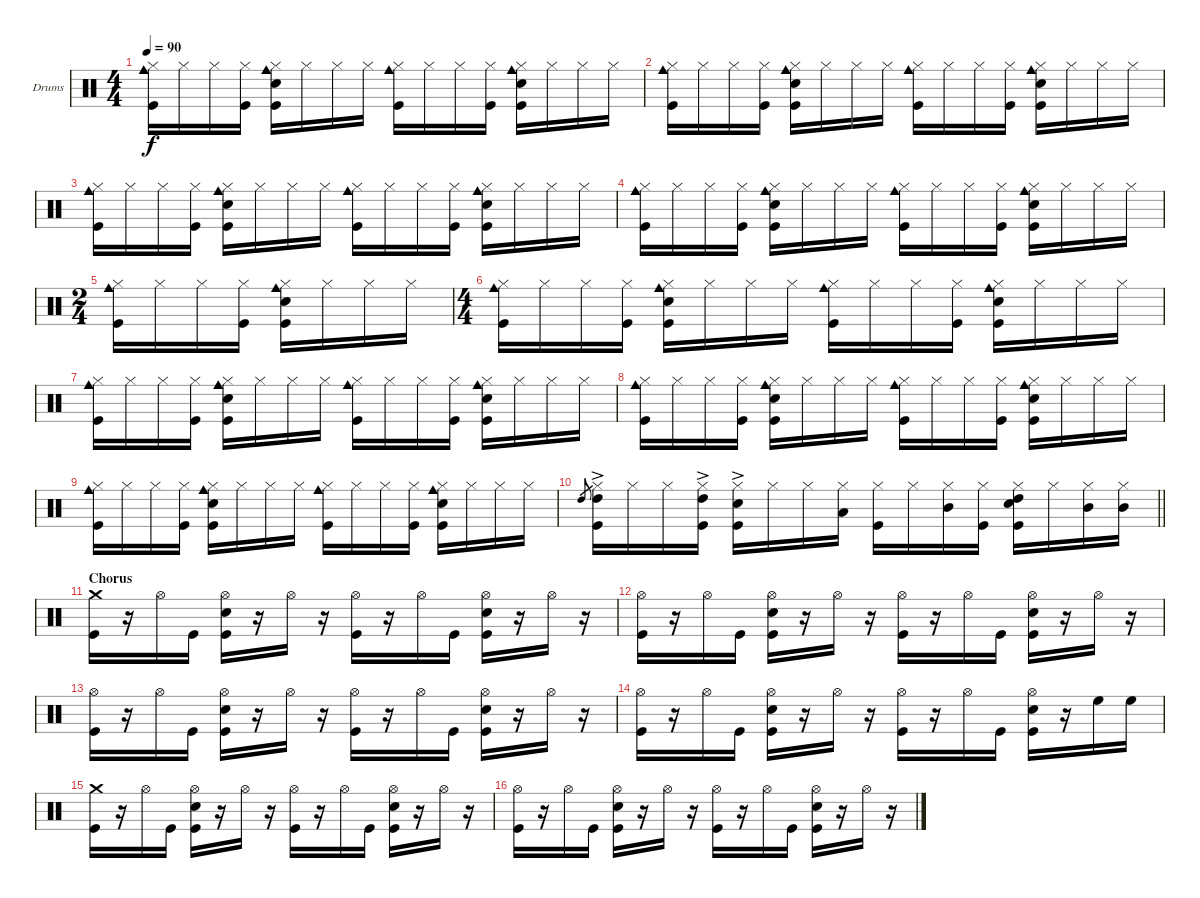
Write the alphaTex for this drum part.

\bracketExtendMode groupsimilarinstruments
\firstSystemTrackNameOrientation horizontal
\otherSystemsTrackNameOrientation horizontal
\track ("Drums" "Drums") {multiBarRest instrument percussion}
\staff {score}
\articulation defaults
\ts (4 4)
\beaming (8 2 2 2 2)
\tempo 90
\clef neutral
\ks c
("Hi-Hat (closed)" "Kick (hit)" "Cowbell medium (hit)").16{dy f} "Hi-Hat (closed)".16 "Hi-Hat (closed)".16 ("Hi-Hat (closed)" "Kick (hit)").16 ("Hi-Hat (closed)" "Snare (hit) 2" "Kick (hit)" "Cowbell medium (hit)").16 "Hi-Hat (closed)".16 "Hi-Hat (closed)".16 "Hi-Hat (closed)".16 ("Hi-Hat (closed)" "Kick (hit)" "Cowbell medium (hit)").16 "Hi-Hat (closed)".16 "Hi-Hat (closed)".16 ("Hi-Hat (closed)" "Kick (hit)").16 ("Hi-Hat (closed)" "Snare (hit) 2" "Kick (hit)" "Cowbell medium (hit)").16 "Hi-Hat (closed)".16 "Hi-Hat (closed)".16 "Hi-Hat (closed)".16 |
("Hi-Hat (closed)" "Kick (hit)" "Cowbell medium (hit)").16 "Hi-Hat (closed)".16 "Hi-Hat (closed)".16 ("Hi-Hat (closed)" "Kick (hit)").16 ("Hi-Hat (closed)" "Snare (hit) 2" "Kick (hit)" "Cowbell medium (hit)").16 "Hi-Hat (closed)".16 "Hi-Hat (closed)".16 "Hi-Hat (closed)".16 ("Hi-Hat (closed)" "Kick (hit)" "Cowbell medium (hit)").16 "Hi-Hat (closed)".16 "Hi-Hat (closed)".16 ("Hi-Hat (closed)" "Kick (hit)").16 ("Hi-Hat (closed)" "Snare (hit) 2" "Kick (hit)" "Cowbell medium (hit)").16 "Hi-Hat (closed)".16 "Hi-Hat (closed)".16 "Hi-Hat (closed)".16 |
("Hi-Hat (closed)" "Kick (hit)" "Cowbell medium (hit)").16 "Hi-Hat (closed)".16 "Hi-Hat (closed)".16 ("Hi-Hat (closed)" "Kick (hit)").16 ("Hi-Hat (closed)" "Snare (hit) 2" "Kick (hit)" "Cowbell medium (hit)").16 "Hi-Hat (closed)".16 "Hi-Hat (closed)".16 "Hi-Hat (closed)".16 ("Hi-Hat (closed)" "Kick (hit)" "Cowbell medium (hit)").16 "Hi-Hat (closed)".16 "Hi-Hat (closed)".16 ("Hi-Hat (closed)" "Kick (hit)").16 ("Hi-Hat (closed)" "Snare (hit) 2" "Kick (hit)" "Cowbell medium (hit)").16 "Hi-Hat (closed)".16 "Hi-Hat (closed)".16 "Hi-Hat (closed)".16 |
("Hi-Hat (closed)" "Kick (hit)" "Cowbell medium (hit)").16 "Hi-Hat (closed)".16 "Hi-Hat (closed)".16 ("Hi-Hat (closed)" "Kick (hit)").16 ("Hi-Hat (closed)" "Snare (hit) 2" "Kick (hit)" "Cowbell medium (hit)").16 "Hi-Hat (closed)".16 "Hi-Hat (closed)".16 "Hi-Hat (closed)".16 ("Hi-Hat (closed)" "Kick (hit)" "Cowbell medium (hit)").16 "Hi-Hat (closed)".16 "Hi-Hat (closed)".16 ("Hi-Hat (closed)" "Kick (hit)").16 ("Hi-Hat (closed)" "Snare (hit) 2" "Kick (hit)" "Cowbell medium (hit)").16 "Hi-Hat (closed)".16 "Hi-Hat (closed)".16 "Hi-Hat (closed)".16 |
\ts (2 4)
\beaming (8 2 2)
("Hi-Hat (closed)" "Kick (hit)" "Cowbell medium (hit)").16 "Hi-Hat (closed)".16 "Hi-Hat (closed)".16 ("Hi-Hat (closed)" "Kick (hit)").16 ("Hi-Hat (closed)" "Snare (hit) 2" "Kick (hit)" "Cowbell medium (hit)").16 "Hi-Hat (closed)".16 "Hi-Hat (closed)".16 "Hi-Hat (closed)".16 |
\ts (4 4)
\beaming (8 2 2 2 2)
("Hi-Hat (closed)" "Kick (hit)" "Cowbell medium (hit)").16 "Hi-Hat (closed)".16 "Hi-Hat (closed)".16 ("Hi-Hat (closed)" "Kick (hit)").16 ("Hi-Hat (closed)" "Snare (hit) 2" "Kick (hit)" "Cowbell medium (hit)").16 "Hi-Hat (closed)".16 "Hi-Hat (closed)".16 "Hi-Hat (closed)".16 ("Hi-Hat (closed)" "Kick (hit)" "Cowbell medium (hit)").16 "Hi-Hat (closed)".16 "Hi-Hat (closed)".16 ("Hi-Hat (closed)" "Kick (hit)").16 ("Hi-Hat (closed)" "Snare (hit) 2" "Kick (hit)" "Cowbell medium (hit)").16 "Hi-Hat (closed)".16 "Hi-Hat (closed)".16 "Hi-Hat (closed)".16 |
("Hi-Hat (closed)" "Kick (hit)" "Cowbell medium (hit)").16 "Hi-Hat (closed)".16 "Hi-Hat (closed)".16 ("Hi-Hat (closed)" "Kick (hit)").16 ("Hi-Hat (closed)" "Snare (hit) 2" "Kick (hit)" "Cowbell medium (hit)").16 "Hi-Hat (closed)".16 "Hi-Hat (closed)".16 "Hi-Hat (closed)".16 ("Hi-Hat (closed)" "Kick (hit)" "Cowbell medium (hit)").16 "Hi-Hat (closed)".16 "Hi-Hat (closed)".16 ("Hi-Hat (closed)" "Kick (hit)").16 ("Hi-Hat (closed)" "Snare (hit) 2" "Kick (hit)" "Cowbell medium (hit)").16 "Hi-Hat (closed)".16 "Hi-Hat (closed)".16 "Hi-Hat (closed)".16 |
("Hi-Hat (closed)" "Kick (hit)" "Cowbell medium (hit)").16 "Hi-Hat (closed)".16 "Hi-Hat (closed)".16 ("Hi-Hat (closed)" "Kick (hit)").16 ("Hi-Hat (closed)" "Snare (hit) 2" "Kick (hit)" "Cowbell medium (hit)").16 "Hi-Hat (closed)".16 "Hi-Hat (closed)".16 "Hi-Hat (closed)".16 ("Hi-Hat (closed)" "Kick (hit)" "Cowbell medium (hit)").16 "Hi-Hat (closed)".16 "Hi-Hat (closed)".16 ("Hi-Hat (closed)" "Kick (hit)").16 ("Hi-Hat (closed)" "Snare (hit) 2" "Kick (hit)" "Cowbell medium (hit)").16 "Hi-Hat (closed)".16 "Hi-Hat (closed)".16 "Hi-Hat (closed)".16 |
("Hi-Hat (closed)" "Kick (hit)" "Cowbell medium (hit)").16 "Hi-Hat (closed)".16 "Hi-Hat (closed)".16 ("Hi-Hat (closed)" "Kick (hit)").16 ("Hi-Hat (closed)" "Snare (hit) 2" "Kick (hit)" "Cowbell medium (hit)").16 "Hi-Hat (closed)".16 "Hi-Hat (closed)".16 "Hi-Hat (closed)".16 ("Hi-Hat (closed)" "Kick (hit)" "Cowbell medium (hit)").16 "Hi-Hat (closed)".16 "Hi-Hat (closed)".16 ("Hi-Hat (closed)" "Kick (hit)").16 ("Hi-Hat (closed)" "Snare (hit) 2" "Kick (hit)" "Cowbell medium (hit)").16 "Hi-Hat (closed)".16 "Hi-Hat (closed)".16 "Hi-Hat (closed)".16 |
\barLineRight lightlight "High Tom (hit)".8{gr}
("Hi-Hat (closed)" "Kick (hit)" "High Tom (hit)"{ac}).16 "Hi-Hat (closed)".16 "Hi-Hat (closed)".16 ("Hi-Hat (closed)" "Kick (hit)" "High Tom (hit)"{ac}).16 ("Hi-Hat (closed)" "Snare (hit) 2"{ac} "Kick (hit)").16 "Hi-Hat (closed)".16 "Hi-Hat (closed)".16 ("Hi-Hat (closed)" "Low Tom (hit)").16 ("Hi-Hat (closed)" "Kick (hit)").16 "Hi-Hat (closed)".16 ("Hi-Hat (closed)" "Mid Tom (hit)").16 ("Hi-Hat (closed)" "Kick (hit)").16 ("Hi-Hat (closed)" "Snare (hit) 2" "Kick (hit)" "High Tom (hit)").16 "Hi-Hat (closed)".16 ("Hi-Hat (closed)" "Mid Tom (hit)").16 ("Hi-Hat (closed)" "Mid Tom (hit)").16 |
\section ("" "Chorus")
("Crash medium (hit)" "Kick (hit)").16 r.16 "Hi-Hat (open)".16 "Kick (hit)".16 ("Hi-Hat (open)" "Snare (hit) 2" "Kick (hit)").16 r.16 "Hi-Hat (open)".16 r.16 ("Hi-Hat (open)" "Kick (hit)").16 r.16 "Hi-Hat (open)".16 "Kick (hit)".16 ("Hi-Hat (open)" "Snare (hit) 2" "Kick (hit)").16 r.16 "Hi-Hat (open)".16 r.16 |
("Hi-Hat (open)" "Kick (hit)").16 r.16 "Hi-Hat (open)".16 "Kick (hit)".16 ("Hi-Hat (open)" "Snare (hit) 2" "Kick (hit)").16 r.16 "Hi-Hat (open)".16 r.16 ("Hi-Hat (open)" "Kick (hit)").16 r.16 "Hi-Hat (open)".16 "Kick (hit)".16 ("Hi-Hat (open)" "Snare (hit) 2" "Kick (hit)").16 r.16 "Hi-Hat (open)".16 r.16 |
("Hi-Hat (open)" "Kick (hit)").16 r.16 "Hi-Hat (open)".16 "Kick (hit)".16 ("Hi-Hat (open)" "Snare (hit) 2" "Kick (hit)").16 r.16 "Hi-Hat (open)".16 r.16 ("Hi-Hat (open)" "Kick (hit)").16 r.16 "Hi-Hat (open)".16 "Kick (hit)".16 ("Hi-Hat (open)" "Snare (hit) 2" "Kick (hit)").16 r.16 "Hi-Hat (open)".16 r.16 |
("Hi-Hat (open)" "Kick (hit)").16 r.16 "Hi-Hat (open)".16 "Kick (hit)".16 ("Hi-Hat (open)" "Snare (hit) 2" "Kick (hit)").16 r.16 "Hi-Hat (open)".16 r.16 ("Hi-Hat (open)" "Kick (hit)").16 r.16 "Hi-Hat (open)".16 "Kick (hit)".16 ("Hi-Hat (open)" "Snare (hit) 2" "Kick (hit)").16 r.16 "High Floor Tom (hit)".16 "High Floor Tom (hit)".16 |
("Crash medium (hit)" "Kick (hit)").16 r.16 "Hi-Hat (open)".16 "Kick (hit)".16 ("Hi-Hat (open)" "Snare (hit) 2" "Kick (hit)").16 r.16 "Hi-Hat (open)".16 r.16 ("Hi-Hat (open)" "Kick (hit)").16 r.16 "Hi-Hat (open)".16 "Kick (hit)".16 ("Hi-Hat (open)" "Snare (hit) 2" "Kick (hit)").16 r.16 "Hi-Hat (open)".16 r.16 |
("Hi-Hat (open)" "Kick (hit)").16 r.16 "Hi-Hat (open)".16 "Kick (hit)".16 ("Hi-Hat (open)" "Snare (hit) 2" "Kick (hit)").16 r.16 "Hi-Hat (open)".16 r.16 ("Hi-Hat (open)" "Kick (hit)").16 r.16 "Hi-Hat (open)".16 "Kick (hit)".16 ("Hi-Hat (open)" "Snare (hit) 2" "Kick (hit)").16 r.16 "Hi-Hat (open)".16 r.16
